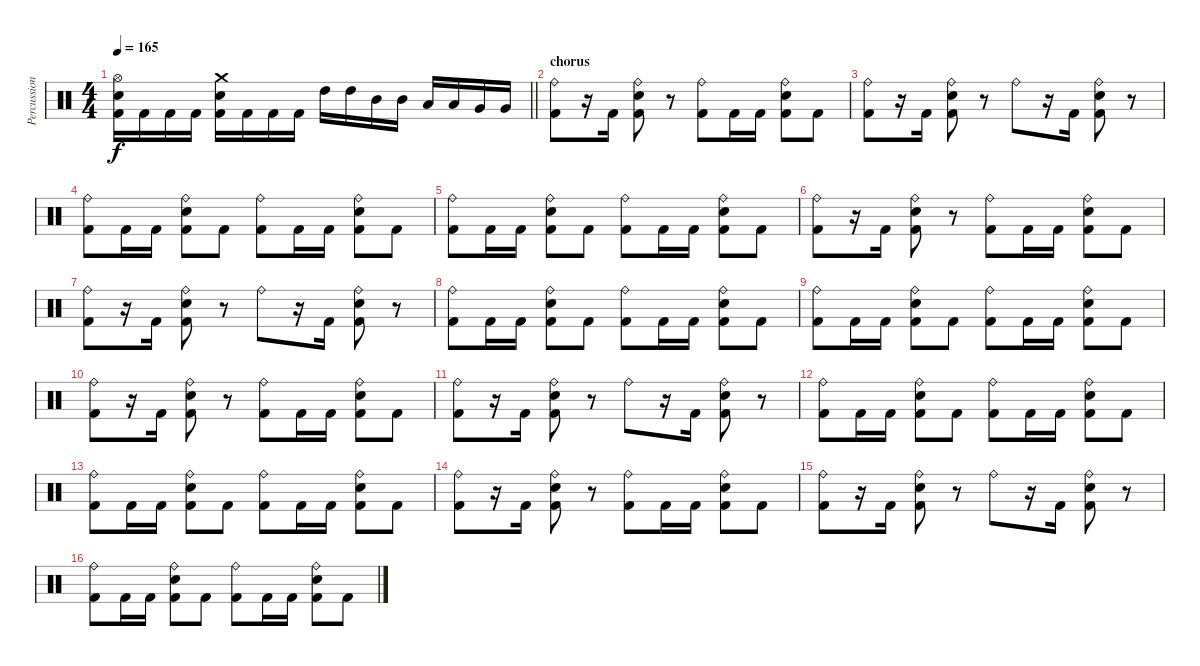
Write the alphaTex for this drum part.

\track ("Percussion" "Percussion") {instrument percussion}
\staff {score}
\articulation defaults
\ts (4 4)
\tempo 165
\clef neutral
\barLineRight lightlight
\ks c
("Hi-Hat (open)" "Electric Snare (hit)" "Kick (hit) 2").16{dy f} "Kick (hit) 2".16 "Kick (hit) 2".16 "Kick (hit) 2".16 ("Crash medium (hit)" "Electric Snare (hit)" "Kick (hit) 2").16 "Kick (hit) 2".16 "Kick (hit) 2".16 "Kick (hit) 2".16 "High Tom (hit)".16 "High Tom (hit)".16 "Mid Tom (hit)".16 "Mid Tom (hit)".16 "Low Tom (hit)".16 "Low Tom (hit)".16 "Very Low Tom (hit)".16 "Very Low Tom (hit)".16 |
\section ("" "chorus")
("Ride (bell)" "Kick (hit) 2").8 r.16 "Kick (hit) 2".16 ("Ride (bell)" "Electric Snare (hit)" "Kick (hit) 2").8 r.8 ("Ride (bell)" "Kick (hit) 2").8 "Kick (hit) 2".16 "Kick (hit) 2".16 ("Ride (bell)" "Electric Snare (hit)" "Kick (hit) 2").8 "Kick (hit) 2".8 |
("Ride (bell)" "Kick (hit) 2").8 r.16 "Kick (hit) 2".16 ("Ride (bell)" "Electric Snare (hit)" "Kick (hit) 2").8 r.8 "Ride (bell)".8 r.16 "Kick (hit) 2".16 ("Ride (bell)" "Electric Snare (hit)" "Kick (hit) 2").8 r.8 |
("Ride (bell)" "Kick (hit) 2").8 "Kick (hit) 2".16 "Kick (hit) 2".16 ("Ride (bell)" "Electric Snare (hit)" "Kick (hit) 2").8 "Kick (hit) 2".8 ("Ride (bell)" "Kick (hit) 2").8 "Kick (hit) 2".16 "Kick (hit) 2".16 ("Ride (bell)" "Electric Snare (hit)" "Kick (hit) 2").8 "Kick (hit) 2".8 |
("Ride (bell)" "Kick (hit) 2").8 "Kick (hit) 2".16 "Kick (hit) 2".16 ("Ride (bell)" "Electric Snare (hit)" "Kick (hit) 2").8 "Kick (hit) 2".8 ("Ride (bell)" "Kick (hit) 2").8 "Kick (hit) 2".16 "Kick (hit) 2".16 ("Ride (bell)" "Electric Snare (hit)" "Kick (hit) 2").8 "Kick (hit) 2".8 |
("Ride (bell)" "Kick (hit) 2").8 r.16 "Kick (hit) 2".16 ("Ride (bell)" "Electric Snare (hit)" "Kick (hit) 2").8 r.8 ("Ride (bell)" "Kick (hit) 2").8 "Kick (hit) 2".16 "Kick (hit) 2".16 ("Ride (bell)" "Electric Snare (hit)" "Kick (hit) 2").8 "Kick (hit) 2".8 |
("Ride (bell)" "Kick (hit) 2").8 r.16 "Kick (hit) 2".16 ("Ride (bell)" "Electric Snare (hit)" "Kick (hit) 2").8 r.8 "Ride (bell)".8 r.16 "Kick (hit) 2".16 ("Ride (bell)" "Electric Snare (hit)" "Kick (hit) 2").8 r.8 |
("Ride (bell)" "Kick (hit) 2").8 "Kick (hit) 2".16 "Kick (hit) 2".16 ("Ride (bell)" "Electric Snare (hit)" "Kick (hit) 2").8 "Kick (hit) 2".8 ("Ride (bell)" "Kick (hit) 2").8 "Kick (hit) 2".16 "Kick (hit) 2".16 ("Ride (bell)" "Electric Snare (hit)" "Kick (hit) 2").8 "Kick (hit) 2".8 |
("Ride (bell)" "Kick (hit) 2").8 "Kick (hit) 2".16 "Kick (hit) 2".16 ("Ride (bell)" "Electric Snare (hit)" "Kick (hit) 2").8 "Kick (hit) 2".8 ("Ride (bell)" "Kick (hit) 2").8 "Kick (hit) 2".16 "Kick (hit) 2".16 ("Ride (bell)" "Electric Snare (hit)" "Kick (hit) 2").8 "Kick (hit) 2".8 |
("Ride (bell)" "Kick (hit) 2").8 r.16 "Kick (hit) 2".16 ("Ride (bell)" "Electric Snare (hit)" "Kick (hit) 2").8 r.8 ("Ride (bell)" "Kick (hit) 2").8 "Kick (hit) 2".16 "Kick (hit) 2".16 ("Ride (bell)" "Electric Snare (hit)" "Kick (hit) 2").8 "Kick (hit) 2".8 |
("Ride (bell)" "Kick (hit) 2").8 r.16 "Kick (hit) 2".16 ("Ride (bell)" "Electric Snare (hit)" "Kick (hit) 2").8 r.8 "Ride (bell)".8 r.16 "Kick (hit) 2".16 ("Ride (bell)" "Electric Snare (hit)" "Kick (hit) 2").8 r.8 |
("Ride (bell)" "Kick (hit) 2").8 "Kick (hit) 2".16 "Kick (hit) 2".16 ("Ride (bell)" "Electric Snare (hit)" "Kick (hit) 2").8 "Kick (hit) 2".8 ("Ride (bell)" "Kick (hit) 2").8 "Kick (hit) 2".16 "Kick (hit) 2".16 ("Ride (bell)" "Electric Snare (hit)" "Kick (hit) 2").8 "Kick (hit) 2".8 |
("Ride (bell)" "Kick (hit) 2").8 "Kick (hit) 2".16 "Kick (hit) 2".16 ("Ride (bell)" "Electric Snare (hit)" "Kick (hit) 2").8 "Kick (hit) 2".8 ("Ride (bell)" "Kick (hit) 2").8 "Kick (hit) 2".16 "Kick (hit) 2".16 ("Ride (bell)" "Electric Snare (hit)" "Kick (hit) 2").8 "Kick (hit) 2".8 |
("Ride (bell)" "Kick (hit) 2").8 r.16 "Kick (hit) 2".16 ("Ride (bell)" "Electric Snare (hit)" "Kick (hit) 2").8 r.8 ("Ride (bell)" "Kick (hit) 2").8 "Kick (hit) 2".16 "Kick (hit) 2".16 ("Ride (bell)" "Electric Snare (hit)" "Kick (hit) 2").8 "Kick (hit) 2".8 |
("Ride (bell)" "Kick (hit) 2").8 r.16 "Kick (hit) 2".16 ("Ride (bell)" "Electric Snare (hit)" "Kick (hit) 2").8 r.8 "Ride (bell)".8 r.16 "Kick (hit) 2".16 ("Ride (bell)" "Electric Snare (hit)" "Kick (hit) 2").8 r.8 |
("Ride (bell)" "Kick (hit) 2").8 "Kick (hit) 2".16 "Kick (hit) 2".16 ("Ride (bell)" "Electric Snare (hit)" "Kick (hit) 2").8 "Kick (hit) 2".8 ("Ride (bell)" "Kick (hit) 2").8 "Kick (hit) 2".16 "Kick (hit) 2".16 ("Ride (bell)" "Electric Snare (hit)" "Kick (hit) 2").8 "Kick (hit) 2".8
